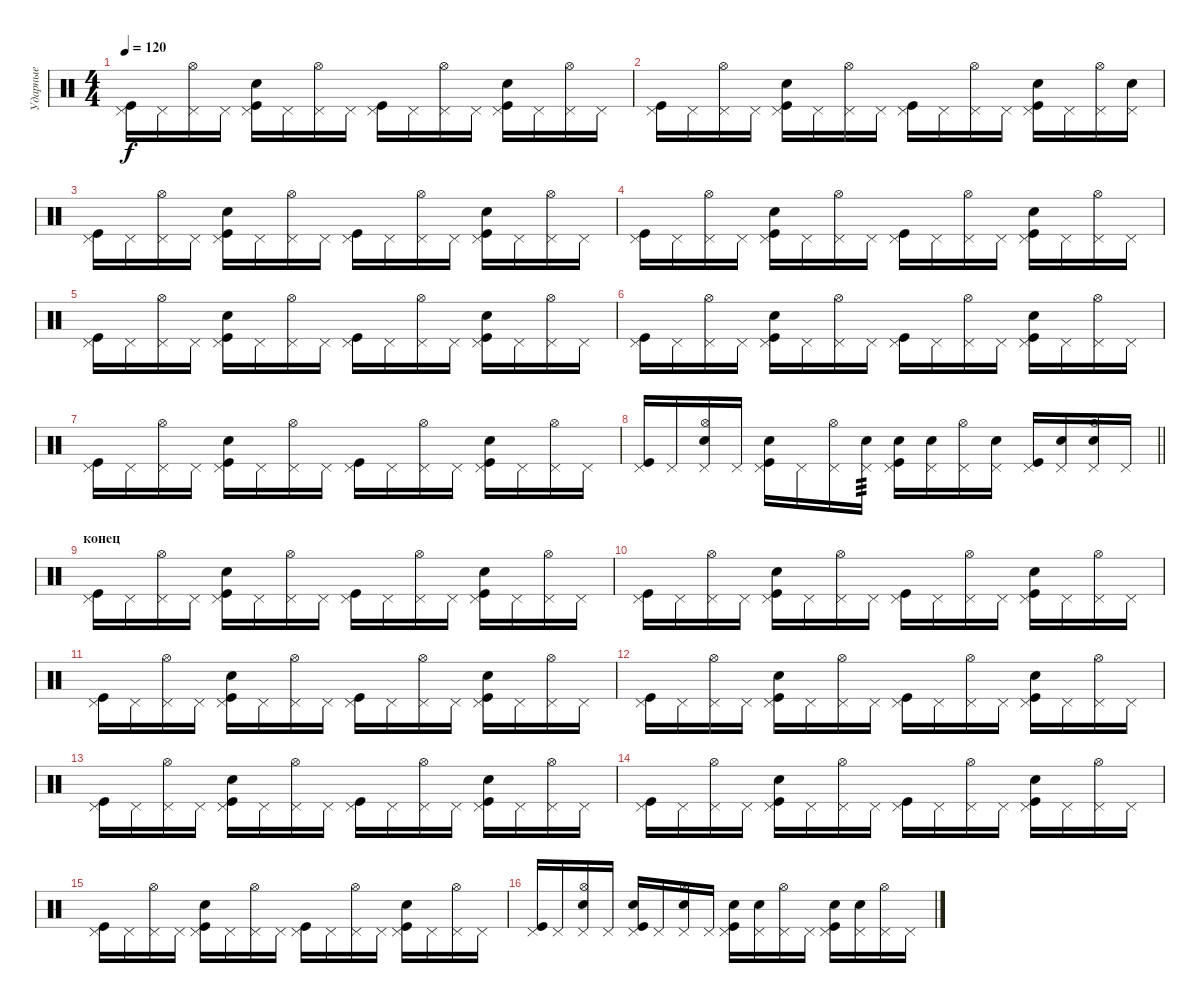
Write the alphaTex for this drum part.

\track ("Ударные" "Ударные") {instrument percussion}
\staff {score}
\articulation defaults
\ts (4 4)
\tempo 120
\clef neutral
\ks c
("Pedal Hi-Hat (hit)" "Kick (hit)").16{dy f} "Pedal Hi-Hat (hit)".16 ("Pedal Hi-Hat (hit)" "Hi-Hat (open)").16 "Pedal Hi-Hat (hit)".16 ("Pedal Hi-Hat (hit)" "Kick (hit)" "Snare (hit) 2").16 "Pedal Hi-Hat (hit)".16 ("Pedal Hi-Hat (hit)" "Hi-Hat (open)").16 "Pedal Hi-Hat (hit)".16 ("Pedal Hi-Hat (hit)" "Kick (hit)").16 "Pedal Hi-Hat (hit)".16 ("Pedal Hi-Hat (hit)" "Hi-Hat (open)").16 "Pedal Hi-Hat (hit)".16 ("Pedal Hi-Hat (hit)" "Kick (hit)" "Snare (hit) 2").16 "Pedal Hi-Hat (hit)".16 ("Pedal Hi-Hat (hit)" "Hi-Hat (open)").16 "Pedal Hi-Hat (hit)".16 |
("Pedal Hi-Hat (hit)" "Kick (hit)").16 "Pedal Hi-Hat (hit)".16 ("Pedal Hi-Hat (hit)" "Hi-Hat (open)").16 "Pedal Hi-Hat (hit)".16 ("Pedal Hi-Hat (hit)" "Kick (hit)" "Snare (hit) 2").16 "Pedal Hi-Hat (hit)".16 ("Pedal Hi-Hat (hit)" "Hi-Hat (open)").16 "Pedal Hi-Hat (hit)".16 ("Pedal Hi-Hat (hit)" "Kick (hit)").16 "Pedal Hi-Hat (hit)".16 ("Pedal Hi-Hat (hit)" "Hi-Hat (open)").16 "Pedal Hi-Hat (hit)".16 ("Pedal Hi-Hat (hit)" "Kick (hit)" "Snare (hit) 2").16 "Pedal Hi-Hat (hit)".16 ("Pedal Hi-Hat (hit)" "Hi-Hat (open)").16 ("Pedal Hi-Hat (hit)" "Snare (hit) 2").16 |
("Pedal Hi-Hat (hit)" "Kick (hit)").16 "Pedal Hi-Hat (hit)".16 ("Pedal Hi-Hat (hit)" "Hi-Hat (open)").16 "Pedal Hi-Hat (hit)".16 ("Pedal Hi-Hat (hit)" "Kick (hit)" "Snare (hit) 2").16 "Pedal Hi-Hat (hit)".16 ("Pedal Hi-Hat (hit)" "Hi-Hat (open)").16 "Pedal Hi-Hat (hit)".16 ("Pedal Hi-Hat (hit)" "Kick (hit)").16 "Pedal Hi-Hat (hit)".16 ("Pedal Hi-Hat (hit)" "Hi-Hat (open)").16 "Pedal Hi-Hat (hit)".16 ("Pedal Hi-Hat (hit)" "Kick (hit)" "Snare (hit) 2").16 "Pedal Hi-Hat (hit)".16 ("Pedal Hi-Hat (hit)" "Hi-Hat (open)").16 "Pedal Hi-Hat (hit)".16 |
("Pedal Hi-Hat (hit)" "Kick (hit)").16 "Pedal Hi-Hat (hit)".16 ("Pedal Hi-Hat (hit)" "Hi-Hat (open)").16 "Pedal Hi-Hat (hit)".16 ("Pedal Hi-Hat (hit)" "Kick (hit)" "Snare (hit) 2").16 "Pedal Hi-Hat (hit)".16 ("Pedal Hi-Hat (hit)" "Hi-Hat (open)").16 "Pedal Hi-Hat (hit)".16 ("Pedal Hi-Hat (hit)" "Kick (hit)").16 "Pedal Hi-Hat (hit)".16 ("Pedal Hi-Hat (hit)" "Hi-Hat (open)").16 "Pedal Hi-Hat (hit)".16 ("Pedal Hi-Hat (hit)" "Kick (hit)" "Snare (hit) 2").16 "Pedal Hi-Hat (hit)".16 ("Pedal Hi-Hat (hit)" "Hi-Hat (open)").16 "Pedal Hi-Hat (hit)".16 |
("Pedal Hi-Hat (hit)" "Kick (hit)").16 "Pedal Hi-Hat (hit)".16 ("Pedal Hi-Hat (hit)" "Hi-Hat (open)").16 "Pedal Hi-Hat (hit)".16 ("Pedal Hi-Hat (hit)" "Kick (hit)" "Snare (hit) 2").16 "Pedal Hi-Hat (hit)".16 ("Pedal Hi-Hat (hit)" "Hi-Hat (open)").16 "Pedal Hi-Hat (hit)".16 ("Pedal Hi-Hat (hit)" "Kick (hit)").16 "Pedal Hi-Hat (hit)".16 ("Pedal Hi-Hat (hit)" "Hi-Hat (open)").16 "Pedal Hi-Hat (hit)".16 ("Pedal Hi-Hat (hit)" "Kick (hit)" "Snare (hit) 2").16 "Pedal Hi-Hat (hit)".16 ("Pedal Hi-Hat (hit)" "Hi-Hat (open)").16 "Pedal Hi-Hat (hit)".16 |
("Pedal Hi-Hat (hit)" "Kick (hit)").16 "Pedal Hi-Hat (hit)".16 ("Pedal Hi-Hat (hit)" "Hi-Hat (open)").16 "Pedal Hi-Hat (hit)".16 ("Pedal Hi-Hat (hit)" "Kick (hit)" "Snare (hit) 2").16 "Pedal Hi-Hat (hit)".16 ("Pedal Hi-Hat (hit)" "Hi-Hat (open)").16 "Pedal Hi-Hat (hit)".16 ("Pedal Hi-Hat (hit)" "Kick (hit)").16 "Pedal Hi-Hat (hit)".16 ("Pedal Hi-Hat (hit)" "Hi-Hat (open)").16 "Pedal Hi-Hat (hit)".16 ("Pedal Hi-Hat (hit)" "Kick (hit)" "Snare (hit) 2").16 "Pedal Hi-Hat (hit)".16 ("Pedal Hi-Hat (hit)" "Hi-Hat (open)").16 "Pedal Hi-Hat (hit)".16 |
("Pedal Hi-Hat (hit)" "Kick (hit)").16 "Pedal Hi-Hat (hit)".16 ("Pedal Hi-Hat (hit)" "Hi-Hat (open)").16 "Pedal Hi-Hat (hit)".16 ("Pedal Hi-Hat (hit)" "Kick (hit)" "Snare (hit) 2").16 "Pedal Hi-Hat (hit)".16 ("Pedal Hi-Hat (hit)" "Hi-Hat (open)").16 "Pedal Hi-Hat (hit)".16 ("Pedal Hi-Hat (hit)" "Kick (hit)").16 "Pedal Hi-Hat (hit)".16 ("Pedal Hi-Hat (hit)" "Hi-Hat (open)").16 "Pedal Hi-Hat (hit)".16 ("Pedal Hi-Hat (hit)" "Kick (hit)" "Snare (hit) 2").16 "Pedal Hi-Hat (hit)".16 ("Pedal Hi-Hat (hit)" "Hi-Hat (open)").16 "Pedal Hi-Hat (hit)".16 |
\barLineRight lightlight
("Pedal Hi-Hat (hit)" "Kick (hit)").16 "Pedal Hi-Hat (hit)".16 ("Pedal Hi-Hat (hit)" "Hi-Hat (open)" "Snare (hit) 2").16 "Pedal Hi-Hat (hit)".16 ("Pedal Hi-Hat (hit)" "Kick (hit)" "Snare (hit) 2").16 "Pedal Hi-Hat (hit)".16 ("Pedal Hi-Hat (hit)" "Hi-Hat (open)").16 ("Pedal Hi-Hat (hit)" "Snare (hit) 2").16{tp 3} ("Pedal Hi-Hat (hit)" "Kick (hit)" "Snare (hit) 2").16 ("Pedal Hi-Hat (hit)" "Snare (hit) 2").16 ("Pedal Hi-Hat (hit)" "Hi-Hat (open)").16 ("Pedal Hi-Hat (hit)" "Snare (hit) 2").16 ("Pedal Hi-Hat (hit)" "Kick (hit)").16 ("Pedal Hi-Hat (hit)" "Snare (hit) 2").16 ("Pedal Hi-Hat (hit)" "Hi-Hat (open)" "Snare (hit) 2").16 "Pedal Hi-Hat (hit)".16 |
\section ("" "конец")
("Pedal Hi-Hat (hit)" "Kick (hit)").16 "Pedal Hi-Hat (hit)".16 ("Pedal Hi-Hat (hit)" "Hi-Hat (open)").16 "Pedal Hi-Hat (hit)".16 ("Pedal Hi-Hat (hit)" "Kick (hit)" "Snare (hit) 2").16 "Pedal Hi-Hat (hit)".16 ("Pedal Hi-Hat (hit)" "Hi-Hat (open)").16 "Pedal Hi-Hat (hit)".16 ("Pedal Hi-Hat (hit)" "Kick (hit)").16 "Pedal Hi-Hat (hit)".16 ("Pedal Hi-Hat (hit)" "Hi-Hat (open)").16 "Pedal Hi-Hat (hit)".16 ("Pedal Hi-Hat (hit)" "Kick (hit)" "Snare (hit) 2").16 "Pedal Hi-Hat (hit)".16 ("Pedal Hi-Hat (hit)" "Hi-Hat (open)").16 "Pedal Hi-Hat (hit)".16 |
("Pedal Hi-Hat (hit)" "Kick (hit)").16 "Pedal Hi-Hat (hit)".16 ("Pedal Hi-Hat (hit)" "Hi-Hat (open)").16 "Pedal Hi-Hat (hit)".16 ("Pedal Hi-Hat (hit)" "Kick (hit)" "Snare (hit) 2").16 "Pedal Hi-Hat (hit)".16 ("Pedal Hi-Hat (hit)" "Hi-Hat (open)").16 "Pedal Hi-Hat (hit)".16 ("Pedal Hi-Hat (hit)" "Kick (hit)").16 "Pedal Hi-Hat (hit)".16 ("Pedal Hi-Hat (hit)" "Hi-Hat (open)").16 "Pedal Hi-Hat (hit)".16 ("Pedal Hi-Hat (hit)" "Kick (hit)" "Snare (hit) 2").16 "Pedal Hi-Hat (hit)".16 ("Pedal Hi-Hat (hit)" "Hi-Hat (open)").16 "Pedal Hi-Hat (hit)".16 |
("Pedal Hi-Hat (hit)" "Kick (hit)").16 "Pedal Hi-Hat (hit)".16 ("Pedal Hi-Hat (hit)" "Hi-Hat (open)").16 "Pedal Hi-Hat (hit)".16 ("Pedal Hi-Hat (hit)" "Kick (hit)" "Snare (hit) 2").16 "Pedal Hi-Hat (hit)".16 ("Pedal Hi-Hat (hit)" "Hi-Hat (open)").16 "Pedal Hi-Hat (hit)".16 ("Pedal Hi-Hat (hit)" "Kick (hit)").16 "Pedal Hi-Hat (hit)".16 ("Pedal Hi-Hat (hit)" "Hi-Hat (open)").16 "Pedal Hi-Hat (hit)".16 ("Pedal Hi-Hat (hit)" "Kick (hit)" "Snare (hit) 2").16 "Pedal Hi-Hat (hit)".16 ("Pedal Hi-Hat (hit)" "Hi-Hat (open)").16 "Pedal Hi-Hat (hit)".16 |
("Pedal Hi-Hat (hit)" "Kick (hit)").16 "Pedal Hi-Hat (hit)".16 ("Pedal Hi-Hat (hit)" "Hi-Hat (open)").16 "Pedal Hi-Hat (hit)".16 ("Pedal Hi-Hat (hit)" "Kick (hit)" "Snare (hit) 2").16 "Pedal Hi-Hat (hit)".16 ("Pedal Hi-Hat (hit)" "Hi-Hat (open)").16 "Pedal Hi-Hat (hit)".16 ("Pedal Hi-Hat (hit)" "Kick (hit)").16 "Pedal Hi-Hat (hit)".16 ("Pedal Hi-Hat (hit)" "Hi-Hat (open)").16 "Pedal Hi-Hat (hit)".16 ("Pedal Hi-Hat (hit)" "Kick (hit)" "Snare (hit) 2").16 "Pedal Hi-Hat (hit)".16 ("Pedal Hi-Hat (hit)" "Hi-Hat (open)").16 "Pedal Hi-Hat (hit)".16 |
("Pedal Hi-Hat (hit)" "Kick (hit)").16 "Pedal Hi-Hat (hit)".16 ("Pedal Hi-Hat (hit)" "Hi-Hat (open)").16 "Pedal Hi-Hat (hit)".16 ("Pedal Hi-Hat (hit)" "Kick (hit)" "Snare (hit) 2").16 "Pedal Hi-Hat (hit)".16 ("Pedal Hi-Hat (hit)" "Hi-Hat (open)").16 "Pedal Hi-Hat (hit)".16 ("Pedal Hi-Hat (hit)" "Kick (hit)").16 "Pedal Hi-Hat (hit)".16 ("Pedal Hi-Hat (hit)" "Hi-Hat (open)").16 "Pedal Hi-Hat (hit)".16 ("Pedal Hi-Hat (hit)" "Kick (hit)" "Snare (hit) 2").16 "Pedal Hi-Hat (hit)".16 ("Pedal Hi-Hat (hit)" "Hi-Hat (open)").16 "Pedal Hi-Hat (hit)".16 |
("Pedal Hi-Hat (hit)" "Kick (hit)").16 "Pedal Hi-Hat (hit)".16 ("Pedal Hi-Hat (hit)" "Hi-Hat (open)").16 "Pedal Hi-Hat (hit)".16 ("Pedal Hi-Hat (hit)" "Kick (hit)" "Snare (hit) 2").16 "Pedal Hi-Hat (hit)".16 ("Pedal Hi-Hat (hit)" "Hi-Hat (open)").16 "Pedal Hi-Hat (hit)".16 ("Pedal Hi-Hat (hit)" "Kick (hit)").16 "Pedal Hi-Hat (hit)".16 ("Pedal Hi-Hat (hit)" "Hi-Hat (open)").16 "Pedal Hi-Hat (hit)".16 ("Pedal Hi-Hat (hit)" "Kick (hit)" "Snare (hit) 2").16 "Pedal Hi-Hat (hit)".16 ("Pedal Hi-Hat (hit)" "Hi-Hat (open)").16 "Pedal Hi-Hat (hit)".16 |
("Pedal Hi-Hat (hit)" "Kick (hit)").16 "Pedal Hi-Hat (hit)".16 ("Pedal Hi-Hat (hit)" "Hi-Hat (open)").16 "Pedal Hi-Hat (hit)".16 ("Pedal Hi-Hat (hit)" "Kick (hit)" "Snare (hit) 2").16 "Pedal Hi-Hat (hit)".16 ("Pedal Hi-Hat (hit)" "Hi-Hat (open)").16 "Pedal Hi-Hat (hit)".16 ("Pedal Hi-Hat (hit)" "Kick (hit)").16 "Pedal Hi-Hat (hit)".16 ("Pedal Hi-Hat (hit)" "Hi-Hat (open)").16 "Pedal Hi-Hat (hit)".16 ("Pedal Hi-Hat (hit)" "Kick (hit)" "Snare (hit) 2").16 "Pedal Hi-Hat (hit)".16 ("Pedal Hi-Hat (hit)" "Hi-Hat (open)").16 "Pedal Hi-Hat (hit)".16 |
("Pedal Hi-Hat (hit)" "Kick (hit)").16 "Pedal Hi-Hat (hit)".16 ("Pedal Hi-Hat (hit)" "Hi-Hat (open)" "Snare (hit) 2").16 "Pedal Hi-Hat (hit)".16 ("Pedal Hi-Hat (hit)" "Kick (hit)" "Snare (hit) 2").16 "Pedal Hi-Hat (hit)".16 ("Pedal Hi-Hat (hit)" "Hi-Hat (open)" "Snare (hit) 2").16 "Pedal Hi-Hat (hit)".16 ("Pedal Hi-Hat (hit)" "Kick (hit)" "Snare (hit) 2").16 ("Pedal Hi-Hat (hit)" "Snare (hit) 2").16 ("Pedal Hi-Hat (hit)" "Hi-Hat (open)").16 "Pedal Hi-Hat (hit)".16 ("Pedal Hi-Hat (hit)" "Kick (hit)" "Snare (hit) 2").16 ("Pedal Hi-Hat (hit)" "Snare (hit) 2").16 ("Pedal Hi-Hat (hit)" "Hi-Hat (open)").16 "Pedal Hi-Hat (hit)".16
